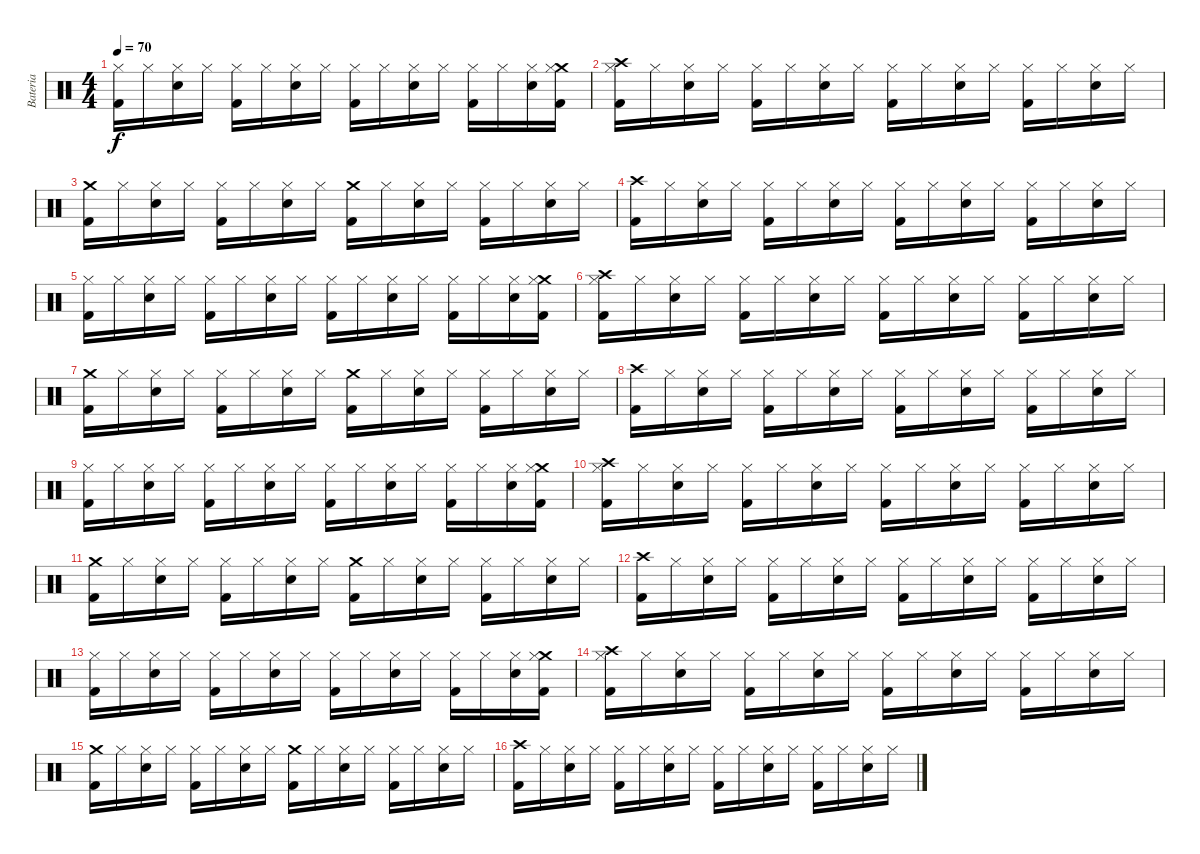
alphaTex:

\track ("Bateria" "Bateria") {instrument percussion}
\staff {score}
\articulation defaults
\ts (4 4)
\tempo 70
\clef neutral
\ks c
("Kick (hit) 2" "Hi-Hat (closed)").16{dy f} "Hi-Hat (closed)".16 ("Snare (hit) 2" "Hi-Hat (closed)").16 "Hi-Hat (closed)".16 ("Kick (hit) 2" "Hi-Hat (closed)").16 "Hi-Hat (closed)".16 ("Snare (hit) 2" "Hi-Hat (closed)").16 "Hi-Hat (closed)".16 ("Kick (hit) 2" "Hi-Hat (closed)").16 "Hi-Hat (closed)".16 ("Snare (hit) 2" "Hi-Hat (closed)").16 "Hi-Hat (closed)".16 ("Kick (hit) 2" "Hi-Hat (closed)").16 "Hi-Hat (closed)".16 ("Snare (hit) 2" "Hi-Hat (closed)").16 ("Kick (hit) 2" "Crash medium (hit)" "Hi-Hat (closed)").16 |
("Kick (hit) 2" "Crash high (hit)" "Hi-Hat (closed)").16 "Hi-Hat (closed)".16 ("Snare (hit) 2" "Hi-Hat (closed)").16 "Hi-Hat (closed)".16 ("Kick (hit) 2" "Hi-Hat (closed)").16 "Hi-Hat (closed)".16 ("Snare (hit) 2" "Hi-Hat (closed)").16 "Hi-Hat (closed)".16 ("Kick (hit) 2" "Hi-Hat (closed)").16 "Hi-Hat (closed)".16 ("Snare (hit) 2" "Hi-Hat (closed)").16 "Hi-Hat (closed)".16 ("Kick (hit) 2" "Hi-Hat (closed)").16 "Hi-Hat (closed)".16 ("Snare (hit) 2" "Hi-Hat (closed)").16 "Hi-Hat (closed)".16 |
("Kick (hit) 2" "Crash medium (hit)").16 "Hi-Hat (closed)".16 ("Snare (hit) 2" "Hi-Hat (closed)").16 "Hi-Hat (closed)".16 ("Kick (hit) 2" "Hi-Hat (closed)").16 "Hi-Hat (closed)".16 ("Snare (hit) 2" "Hi-Hat (closed)").16 "Hi-Hat (closed)".16 ("Kick (hit) 2" "Crash medium (hit)").16 "Hi-Hat (closed)".16 ("Snare (hit) 2" "Hi-Hat (closed)").16 "Hi-Hat (closed)".16 ("Kick (hit) 2" "Hi-Hat (closed)").16 "Hi-Hat (closed)".16 ("Snare (hit) 2" "Hi-Hat (closed)").16 "Hi-Hat (closed)".16 |
("Kick (hit) 2" "Crash high (hit)").16 "Hi-Hat (closed)".16 ("Snare (hit) 2" "Hi-Hat (closed)").16 "Hi-Hat (closed)".16 ("Kick (hit) 2" "Hi-Hat (closed)").16 "Hi-Hat (closed)".16 ("Snare (hit) 2" "Hi-Hat (closed)").16 "Hi-Hat (closed)".16 ("Kick (hit) 2" "Hi-Hat (closed)").16 "Hi-Hat (closed)".16 ("Snare (hit) 2" "Hi-Hat (closed)").16 "Hi-Hat (closed)".16 ("Kick (hit) 2" "Hi-Hat (closed)").16 "Hi-Hat (closed)".16 ("Snare (hit) 2" "Hi-Hat (closed)").16 "Hi-Hat (closed)".16 |
("Kick (hit) 2" "Hi-Hat (closed)").16 "Hi-Hat (closed)".16 ("Snare (hit) 2" "Hi-Hat (closed)").16 "Hi-Hat (closed)".16 ("Kick (hit) 2" "Hi-Hat (closed)").16 "Hi-Hat (closed)".16 ("Snare (hit) 2" "Hi-Hat (closed)").16 "Hi-Hat (closed)".16 ("Kick (hit) 2" "Hi-Hat (closed)").16 "Hi-Hat (closed)".16 ("Snare (hit) 2" "Hi-Hat (closed)").16 "Hi-Hat (closed)".16 ("Kick (hit) 2" "Hi-Hat (closed)").16 "Hi-Hat (closed)".16 ("Snare (hit) 2" "Hi-Hat (closed)").16 ("Kick (hit) 2" "Crash medium (hit)" "Hi-Hat (closed)").16 |
("Kick (hit) 2" "Crash high (hit)" "Hi-Hat (closed)").16 "Hi-Hat (closed)".16 ("Snare (hit) 2" "Hi-Hat (closed)").16 "Hi-Hat (closed)".16 ("Kick (hit) 2" "Hi-Hat (closed)").16 "Hi-Hat (closed)".16 ("Snare (hit) 2" "Hi-Hat (closed)").16 "Hi-Hat (closed)".16 ("Kick (hit) 2" "Hi-Hat (closed)").16 "Hi-Hat (closed)".16 ("Snare (hit) 2" "Hi-Hat (closed)").16 "Hi-Hat (closed)".16 ("Kick (hit) 2" "Hi-Hat (closed)").16 "Hi-Hat (closed)".16 ("Snare (hit) 2" "Hi-Hat (closed)").16 "Hi-Hat (closed)".16 |
("Kick (hit) 2" "Crash medium (hit)").16 "Hi-Hat (closed)".16 ("Snare (hit) 2" "Hi-Hat (closed)").16 "Hi-Hat (closed)".16 ("Kick (hit) 2" "Hi-Hat (closed)").16 "Hi-Hat (closed)".16 ("Snare (hit) 2" "Hi-Hat (closed)").16 "Hi-Hat (closed)".16 ("Kick (hit) 2" "Crash medium (hit)").16 "Hi-Hat (closed)".16 ("Snare (hit) 2" "Hi-Hat (closed)").16 "Hi-Hat (closed)".16 ("Kick (hit) 2" "Hi-Hat (closed)").16 "Hi-Hat (closed)".16 ("Snare (hit) 2" "Hi-Hat (closed)").16 "Hi-Hat (closed)".16 |
("Kick (hit) 2" "Crash high (hit)").16 "Hi-Hat (closed)".16 ("Snare (hit) 2" "Hi-Hat (closed)").16 "Hi-Hat (closed)".16 ("Kick (hit) 2" "Hi-Hat (closed)").16 "Hi-Hat (closed)".16 ("Snare (hit) 2" "Hi-Hat (closed)").16 "Hi-Hat (closed)".16 ("Kick (hit) 2" "Hi-Hat (closed)").16 "Hi-Hat (closed)".16 ("Snare (hit) 2" "Hi-Hat (closed)").16 "Hi-Hat (closed)".16 ("Kick (hit) 2" "Hi-Hat (closed)").16 "Hi-Hat (closed)".16 ("Snare (hit) 2" "Hi-Hat (closed)").16 "Hi-Hat (closed)".16 |
("Kick (hit) 2" "Hi-Hat (closed)").16 "Hi-Hat (closed)".16 ("Snare (hit) 2" "Hi-Hat (closed)").16 "Hi-Hat (closed)".16 ("Kick (hit) 2" "Hi-Hat (closed)").16 "Hi-Hat (closed)".16 ("Snare (hit) 2" "Hi-Hat (closed)").16 "Hi-Hat (closed)".16 ("Kick (hit) 2" "Hi-Hat (closed)").16 "Hi-Hat (closed)".16 ("Snare (hit) 2" "Hi-Hat (closed)").16 "Hi-Hat (closed)".16 ("Kick (hit) 2" "Hi-Hat (closed)").16 "Hi-Hat (closed)".16 ("Snare (hit) 2" "Hi-Hat (closed)").16 ("Kick (hit) 2" "Crash medium (hit)" "Hi-Hat (closed)").16 |
("Kick (hit) 2" "Crash high (hit)" "Hi-Hat (closed)").16 "Hi-Hat (closed)".16 ("Snare (hit) 2" "Hi-Hat (closed)").16 "Hi-Hat (closed)".16 ("Kick (hit) 2" "Hi-Hat (closed)").16 "Hi-Hat (closed)".16 ("Snare (hit) 2" "Hi-Hat (closed)").16 "Hi-Hat (closed)".16 ("Kick (hit) 2" "Hi-Hat (closed)").16 "Hi-Hat (closed)".16 ("Snare (hit) 2" "Hi-Hat (closed)").16 "Hi-Hat (closed)".16 ("Kick (hit) 2" "Hi-Hat (closed)").16 "Hi-Hat (closed)".16 ("Snare (hit) 2" "Hi-Hat (closed)").16 "Hi-Hat (closed)".16 |
("Kick (hit) 2" "Crash medium (hit)").16 "Hi-Hat (closed)".16 ("Snare (hit) 2" "Hi-Hat (closed)").16 "Hi-Hat (closed)".16 ("Kick (hit) 2" "Hi-Hat (closed)").16 "Hi-Hat (closed)".16 ("Snare (hit) 2" "Hi-Hat (closed)").16 "Hi-Hat (closed)".16 ("Kick (hit) 2" "Crash medium (hit)").16 "Hi-Hat (closed)".16 ("Snare (hit) 2" "Hi-Hat (closed)").16 "Hi-Hat (closed)".16 ("Kick (hit) 2" "Hi-Hat (closed)").16 "Hi-Hat (closed)".16 ("Snare (hit) 2" "Hi-Hat (closed)").16 "Hi-Hat (closed)".16 |
("Kick (hit) 2" "Crash high (hit)").16 "Hi-Hat (closed)".16 ("Snare (hit) 2" "Hi-Hat (closed)").16 "Hi-Hat (closed)".16 ("Kick (hit) 2" "Hi-Hat (closed)").16 "Hi-Hat (closed)".16 ("Snare (hit) 2" "Hi-Hat (closed)").16 "Hi-Hat (closed)".16 ("Kick (hit) 2" "Hi-Hat (closed)").16 "Hi-Hat (closed)".16 ("Snare (hit) 2" "Hi-Hat (closed)").16 "Hi-Hat (closed)".16 ("Kick (hit) 2" "Hi-Hat (closed)").16 "Hi-Hat (closed)".16 ("Snare (hit) 2" "Hi-Hat (closed)").16 "Hi-Hat (closed)".16 |
("Kick (hit) 2" "Hi-Hat (closed)").16 "Hi-Hat (closed)".16 ("Snare (hit) 2" "Hi-Hat (closed)").16 "Hi-Hat (closed)".16 ("Kick (hit) 2" "Hi-Hat (closed)").16 "Hi-Hat (closed)".16 ("Snare (hit) 2" "Hi-Hat (closed)").16 "Hi-Hat (closed)".16 ("Kick (hit) 2" "Hi-Hat (closed)").16 "Hi-Hat (closed)".16 ("Snare (hit) 2" "Hi-Hat (closed)").16 "Hi-Hat (closed)".16 ("Kick (hit) 2" "Hi-Hat (closed)").16 "Hi-Hat (closed)".16 ("Snare (hit) 2" "Hi-Hat (closed)").16 ("Kick (hit) 2" "Crash medium (hit)" "Hi-Hat (closed)").16 |
("Kick (hit) 2" "Crash high (hit)" "Hi-Hat (closed)").16{volume 0} "Hi-Hat (closed)".16 ("Snare (hit) 2" "Hi-Hat (closed)").16 "Hi-Hat (closed)".16 ("Kick (hit) 2" "Hi-Hat (closed)").16 "Hi-Hat (closed)".16 ("Snare (hit) 2" "Hi-Hat (closed)").16 "Hi-Hat (closed)".16 ("Kick (hit) 2" "Hi-Hat (closed)").16 "Hi-Hat (closed)".16 ("Snare (hit) 2" "Hi-Hat (closed)").16 "Hi-Hat (closed)".16 ("Kick (hit) 2" "Hi-Hat (closed)").16 "Hi-Hat (closed)".16 ("Snare (hit) 2" "Hi-Hat (closed)").16 "Hi-Hat (closed)".16 |
("Kick (hit) 2" "Crash medium (hit)").16 "Hi-Hat (closed)".16 ("Snare (hit) 2" "Hi-Hat (closed)").16 "Hi-Hat (closed)".16 ("Kick (hit) 2" "Hi-Hat (closed)").16 "Hi-Hat (closed)".16 ("Snare (hit) 2" "Hi-Hat (closed)").16 "Hi-Hat (closed)".16 ("Kick (hit) 2" "Crash medium (hit)").16 "Hi-Hat (closed)".16 ("Snare (hit) 2" "Hi-Hat (closed)").16 "Hi-Hat (closed)".16 ("Kick (hit) 2" "Hi-Hat (closed)").16 "Hi-Hat (closed)".16 ("Snare (hit) 2" "Hi-Hat (closed)").16 "Hi-Hat (closed)".16 |
("Kick (hit) 2" "Crash high (hit)").16 "Hi-Hat (closed)".16 ("Snare (hit) 2" "Hi-Hat (closed)").16 "Hi-Hat (closed)".16 ("Kick (hit) 2" "Hi-Hat (closed)").16 "Hi-Hat (closed)".16 ("Snare (hit) 2" "Hi-Hat (closed)").16 "Hi-Hat (closed)".16 ("Kick (hit) 2" "Hi-Hat (closed)").16 "Hi-Hat (closed)".16 ("Snare (hit) 2" "Hi-Hat (closed)").16 "Hi-Hat (closed)".16 ("Kick (hit) 2" "Hi-Hat (closed)").16 "Hi-Hat (closed)".16 ("Snare (hit) 2" "Hi-Hat (closed)").16 "Hi-Hat (closed)".16
